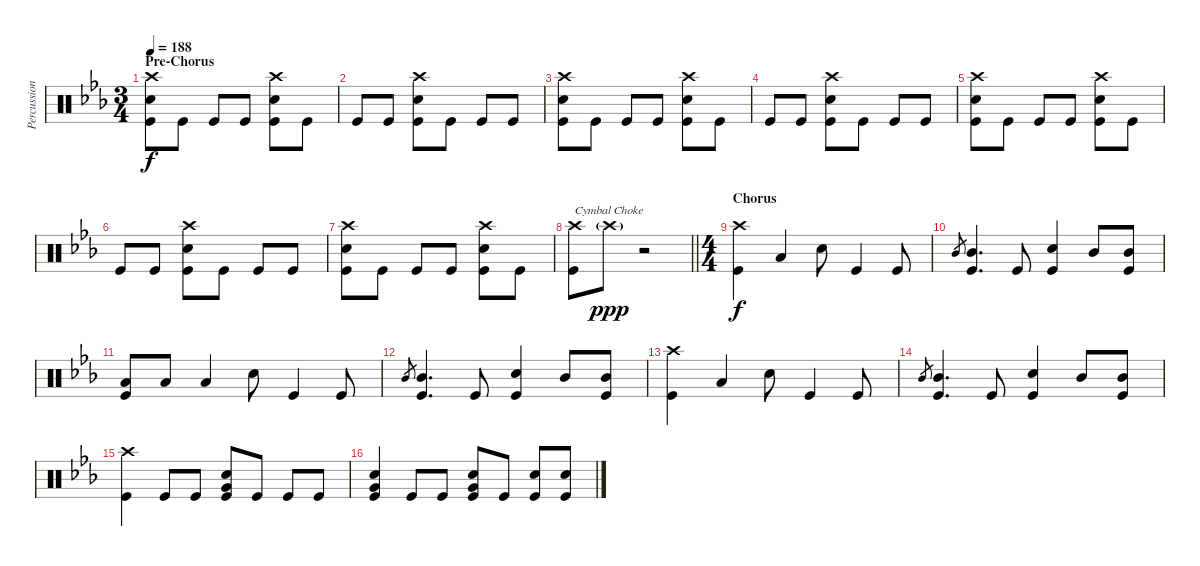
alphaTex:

\track ("Percussion" "Percussion") {instrument percussion}
\staff {score}
\articulation defaults
\ts (3 4)
\section ("" "Pre-Chorus")
\tempo 188
\clef neutral
\ks eb
("Crash high (hit)" "Electric Snare (hit)" "Kick (hit)").8{dy f} "Kick (hit)".8 "Kick (hit)".8 "Kick (hit)".8 ("Crash high (hit)" "Electric Snare (hit)" "Kick (hit)").8 "Kick (hit)".8 |
"Kick (hit)".8 "Kick (hit)".8 ("Crash high (hit)" "Electric Snare (hit)" "Kick (hit)").8 "Kick (hit)".8 "Kick (hit)".8 "Kick (hit)".8 |
("Crash high (hit)" "Electric Snare (hit)" "Kick (hit)").8 "Kick (hit)".8 "Kick (hit)".8 "Kick (hit)".8 ("Crash high (hit)" "Electric Snare (hit)" "Kick (hit)").8 "Kick (hit)".8 |
"Kick (hit)".8 "Kick (hit)".8 ("Crash high (hit)" "Electric Snare (hit)" "Kick (hit)").8 "Kick (hit)".8 "Kick (hit)".8 "Kick (hit)".8 |
("Crash high (hit)" "Electric Snare (hit)" "Kick (hit)").8 "Kick (hit)".8 "Kick (hit)".8 "Kick (hit)".8 ("Crash high (hit)" "Electric Snare (hit)" "Kick (hit)").8 "Kick (hit)".8 |
"Kick (hit)".8 "Kick (hit)".8 ("Crash high (hit)" "Electric Snare (hit)" "Kick (hit)").8 "Kick (hit)".8 "Kick (hit)".8 "Kick (hit)".8 |
("Crash high (hit)" "Electric Snare (hit)" "Kick (hit)").8 "Kick (hit)".8 "Kick (hit)".8 "Kick (hit)".8 ("Crash high (hit)" "Electric Snare (hit)" "Kick (hit)").8 "Kick (hit)".8 |
\barLineRight lightlight
("Crash high (hit)" "Kick (hit)").8{txt "Cymbal Choke"} "Crash high (hit)"{g}.8{dy ppp volume 0} r.2 |
\ts (4 4)
\section ("" "Chorus")
("Crash high (hit)" "Kick (hit)").4{dy f volume 16} "Low Tom (hit)".4 "Electric Snare (hit)".8 "Kick (hit)".4 "Kick (hit)".8 |
"Mid Tom (hit)".8{gr} ("Mid Tom (hit)" "Kick (hit)").4{d} "Kick (hit)".8 ("Electric Snare (hit)" "Kick (hit)").4 "Mid Tom (hit)".8 ("Mid Tom (hit)" "Kick (hit)").8 |
("Low Tom (hit)" "Kick (hit)").8 "Low Tom (hit)".8 "Low Tom (hit)".4 "Electric Snare (hit)".8 "Kick (hit)".4 "Kick (hit)".8 |
"Mid Tom (hit)".8{gr} ("Mid Tom (hit)" "Kick (hit)").4{d} "Kick (hit)".8 ("Electric Snare (hit)" "Kick (hit)").4 "Mid Tom (hit)".8 ("Mid Tom (hit)" "Kick (hit)").8 |
("Crash high (hit)" "Kick (hit)").4 "Low Tom (hit)".4 "Electric Snare (hit)".8 "Kick (hit)".4 "Kick (hit)".8 |
"Mid Tom (hit)".8{gr} ("Mid Tom (hit)" "Kick (hit)").4{d} "Kick (hit)".8 ("Electric Snare (hit)" "Kick (hit)").4 "Mid Tom (hit)".8 ("Mid Tom (hit)" "Kick (hit)").8 |
("Crash high (hit)" "Kick (hit)").4 "Kick (hit)".8 "Kick (hit)".8 ("Electric Snare (hit)" "Very Low Tom (hit)" "Kick (hit)").8 "Kick (hit)".8 "Kick (hit)".8 "Kick (hit)".8 |
("Electric Snare (hit)" "Very Low Tom (hit)" "Kick (hit)").4 "Kick (hit)".8 "Kick (hit)".8 ("Electric Snare (hit)" "Very Low Tom (hit)" "Kick (hit)").8 "Kick (hit)".8 ("Electric Snare (hit)" "Kick (hit)").8 ("Electric Snare (hit)" "Kick (hit)").8
